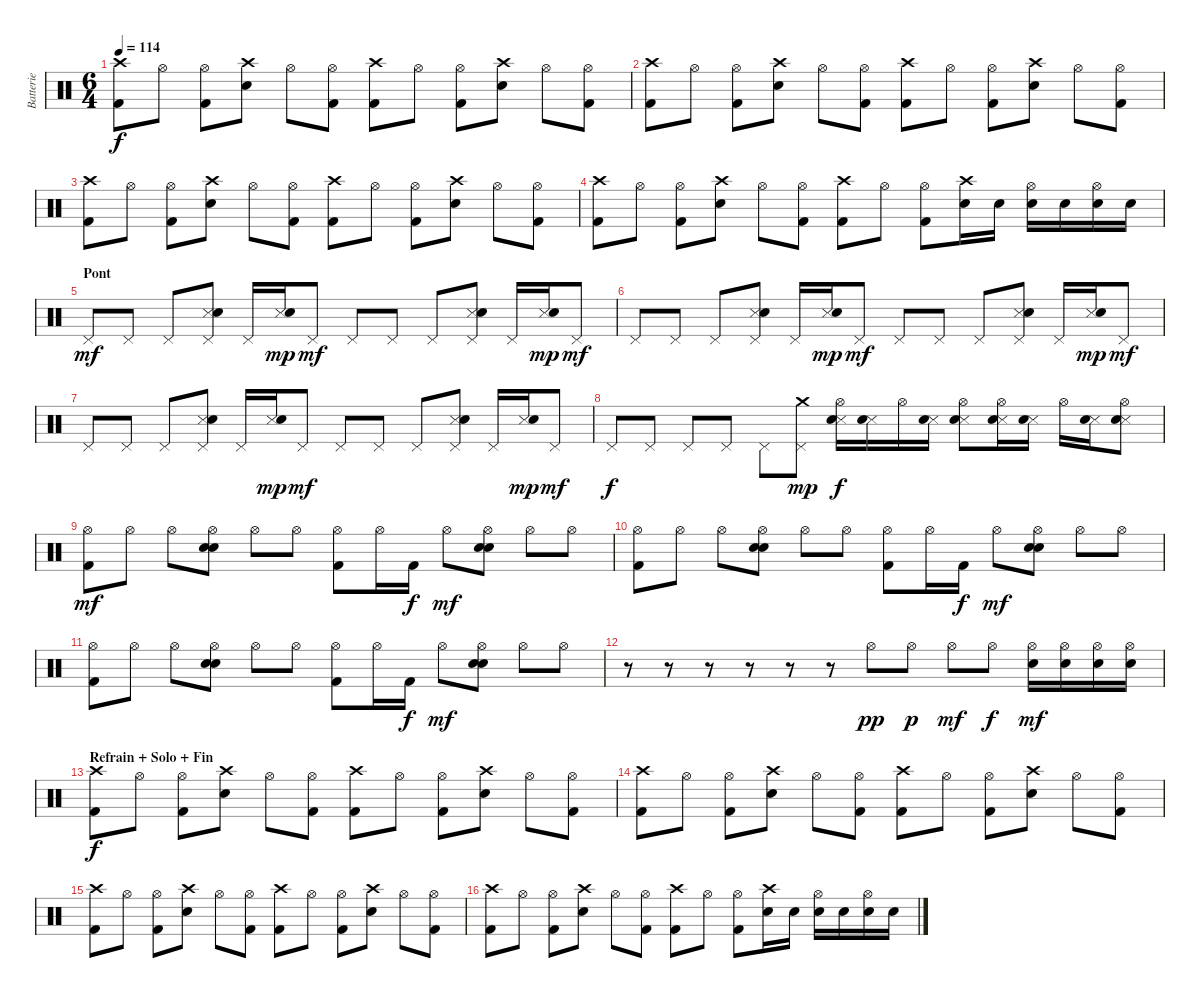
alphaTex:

\track ("Batterie" "Batterie") {instrument percussion}
\staff {score}
\articulation defaults
\ts (6 4)
\tempo 114
\clef neutral
\ks c
("Crash high (hit)" "Kick (hit) 2").8{dy f} "Hi-Hat (open)".8 ("Hi-Hat (open)" "Kick (hit) 2").8 ("Crash high (hit)" "Electric Snare (hit)").8 "Hi-Hat (open)".8 ("Hi-Hat (open)" "Kick (hit) 2").8 ("Crash high (hit)" "Kick (hit) 2").8 "Hi-Hat (open)".8 ("Hi-Hat (open)" "Kick (hit) 2").8 ("Crash high (hit)" "Electric Snare (hit)").8 "Hi-Hat (open)".8 ("Hi-Hat (open)" "Kick (hit) 2").8 |
("Crash high (hit)" "Kick (hit) 2").8 "Hi-Hat (open)".8 ("Hi-Hat (open)" "Kick (hit) 2").8 ("Crash high (hit)" "Electric Snare (hit)").8 "Hi-Hat (open)".8 ("Hi-Hat (open)" "Kick (hit) 2").8 ("Crash high (hit)" "Kick (hit) 2").8 "Hi-Hat (open)".8 ("Hi-Hat (open)" "Kick (hit) 2").8 ("Crash high (hit)" "Electric Snare (hit)").8 "Hi-Hat (open)".8 ("Hi-Hat (open)" "Kick (hit) 2").8 |
("Crash high (hit)" "Kick (hit) 2").8 "Hi-Hat (open)".8 ("Hi-Hat (open)" "Kick (hit) 2").8 ("Crash high (hit)" "Electric Snare (hit)").8 "Hi-Hat (open)".8 ("Hi-Hat (open)" "Kick (hit) 2").8 ("Crash high (hit)" "Kick (hit) 2").8 "Hi-Hat (open)".8 ("Hi-Hat (open)" "Kick (hit) 2").8 ("Crash high (hit)" "Electric Snare (hit)").8 "Hi-Hat (open)".8 ("Hi-Hat (open)" "Kick (hit) 2").8 |
("Crash high (hit)" "Kick (hit) 2").8 "Hi-Hat (open)".8 ("Hi-Hat (open)" "Kick (hit) 2").8 ("Crash high (hit)" "Electric Snare (hit)").8 "Hi-Hat (open)".8 ("Hi-Hat (open)" "Kick (hit) 2").8 ("Crash high (hit)" "Kick (hit) 2").8 "Hi-Hat (open)".8 ("Hi-Hat (open)" "Kick (hit) 2").8 ("Crash high (hit)" "Electric Snare (hit)").16 "Electric Snare (hit)".16 ("Hi-Hat (open)" "Electric Snare (hit)").16 "Electric Snare (hit)".16 ("Hi-Hat (open)" "Electric Snare (hit)").16 "Electric Snare (hit)".16 |
\section ("" "Pont")
"Pedal Hi-Hat (hit)".8{dy mf} "Pedal Hi-Hat (hit)".8 "Pedal Hi-Hat (hit)".8 ("Pedal Hi-Hat (hit)" "Snare (side stick) 3" "Hand Clap (hit)").8 "Pedal Hi-Hat (hit)".16 ("Snare (side stick) 3" "Hand Clap (hit)").16{dy mp} "Pedal Hi-Hat (hit)".8{dy mf} "Pedal Hi-Hat (hit)".8 "Pedal Hi-Hat (hit)".8 "Pedal Hi-Hat (hit)".8 ("Pedal Hi-Hat (hit)" "Snare (side stick) 3" "Hand Clap (hit)").8 "Pedal Hi-Hat (hit)".16 ("Snare (side stick) 3" "Hand Clap (hit)").16{dy mp} "Pedal Hi-Hat (hit)".8{dy mf} |
"Pedal Hi-Hat (hit)".8 "Pedal Hi-Hat (hit)".8 "Pedal Hi-Hat (hit)".8 ("Pedal Hi-Hat (hit)" "Snare (side stick) 3" "Hand Clap (hit)").8 "Pedal Hi-Hat (hit)".16 ("Snare (side stick) 3" "Hand Clap (hit)").16{dy mp} "Pedal Hi-Hat (hit)".8{dy mf} "Pedal Hi-Hat (hit)".8 "Pedal Hi-Hat (hit)".8 "Pedal Hi-Hat (hit)".8 ("Pedal Hi-Hat (hit)" "Snare (side stick) 3" "Hand Clap (hit)").8 "Pedal Hi-Hat (hit)".16 ("Snare (side stick) 3" "Hand Clap (hit)").16{dy mp} "Pedal Hi-Hat (hit)".8{dy mf} |
"Pedal Hi-Hat (hit)".8 "Pedal Hi-Hat (hit)".8 "Pedal Hi-Hat (hit)".8 ("Pedal Hi-Hat (hit)" "Snare (side stick) 3" "Hand Clap (hit)").8 "Pedal Hi-Hat (hit)".16 ("Snare (side stick) 3" "Hand Clap (hit)").16{dy mp} "Pedal Hi-Hat (hit)".8{dy mf} "Pedal Hi-Hat (hit)".8 "Pedal Hi-Hat (hit)".8 "Pedal Hi-Hat (hit)".8 ("Pedal Hi-Hat (hit)" "Snare (side stick) 3" "Hand Clap (hit)").8 "Pedal Hi-Hat (hit)".16 ("Snare (side stick) 3" "Hand Clap (hit)").16{dy mp} "Pedal Hi-Hat (hit)".8{dy mf} |
"Pedal Hi-Hat (hit)".8{dy f} "Pedal Hi-Hat (hit)".8 "Pedal Hi-Hat (hit)".8 "Pedal Hi-Hat (hit)".8 "Pedal Hi-Hat (hit)".8 ("Pedal Hi-Hat (hit)" "Crash medium (hit)").8{dy mp} ("Hi-Hat (open)" "Snare (side stick) 3" "Hand Clap (hit)").16{dy f} ("Snare (side stick) 3" "Hand Clap (hit)").16 "Hi-Hat (open)".16 ("Snare (side stick) 3" "Hand Clap (hit)").16 ("Hi-Hat (open)" "Snare (side stick) 3" "Hand Clap (hit)").8 ("Hi-Hat (open)" "Snare (side stick) 3" "Hand Clap (hit)").16 ("Snare (side stick) 3" "Hand Clap (hit)").16 "Hi-Hat (open)".16 ("Snare (side stick) 3" "Hand Clap (hit)").16 ("Hi-Hat (open)" "Snare (side stick) 3" "Hand Clap (hit)").8 |
("Hi-Hat (open)" "Kick (hit) 2").8{dy mf} "Hi-Hat (open)".8 "Hi-Hat (open)".8 ("Hi-Hat (open)" "Electric Snare (hit)" "Hand Clap (hit)").8 "Hi-Hat (open)".8 "Hi-Hat (open)".8 ("Hi-Hat (open)" "Kick (hit) 2").8 "Hi-Hat (open)".16 "Kick (hit) 2".16{dy f} "Hi-Hat (open)".8{dy mf} ("Hi-Hat (open)" "Electric Snare (hit)" "Hand Clap (hit)").8 "Hi-Hat (open)".8 "Hi-Hat (open)".8 |
("Hi-Hat (open)" "Kick (hit) 2").8 "Hi-Hat (open)".8 "Hi-Hat (open)".8 ("Hi-Hat (open)" "Electric Snare (hit)" "Hand Clap (hit)").8 "Hi-Hat (open)".8 "Hi-Hat (open)".8 ("Hi-Hat (open)" "Kick (hit) 2").8 "Hi-Hat (open)".16 "Kick (hit) 2".16{dy f} "Hi-Hat (open)".8{dy mf} ("Hi-Hat (open)" "Electric Snare (hit)" "Hand Clap (hit)").8 "Hi-Hat (open)".8 "Hi-Hat (open)".8 |
("Hi-Hat (open)" "Kick (hit) 2").8 "Hi-Hat (open)".8 "Hi-Hat (open)".8 ("Hi-Hat (open)" "Electric Snare (hit)" "Hand Clap (hit)").8 "Hi-Hat (open)".8 "Hi-Hat (open)".8 ("Hi-Hat (open)" "Kick (hit) 2").8 "Hi-Hat (open)".16 "Kick (hit) 2".16{dy f} "Hi-Hat (open)".8{dy mf} ("Hi-Hat (open)" "Electric Snare (hit)" "Hand Clap (hit)").8 "Hi-Hat (open)".8 "Hi-Hat (open)".8 |
r.8 r.8 r.8 r.8 r.8 r.8 "Hi-Hat (open)".8{dy pp} "Hi-Hat (open)".8{dy p} "Hi-Hat (open)".8{dy mf} "Hi-Hat (open)".8{dy f} ("Hi-Hat (open)" "Electric Snare (hit)").16{dy mf} ("Hi-Hat (open)" "Electric Snare (hit)").16 ("Hi-Hat (open)" "Electric Snare (hit)").16 ("Hi-Hat (open)" "Electric Snare (hit)").16 |
\section ("" "Refrain + Solo + Fin")
("Crash high (hit)" "Kick (hit) 2").8{dy f} "Hi-Hat (open)".8 ("Hi-Hat (open)" "Kick (hit) 2").8 ("Crash high (hit)" "Electric Snare (hit)").8 "Hi-Hat (open)".8 ("Hi-Hat (open)" "Kick (hit) 2").8 ("Crash high (hit)" "Kick (hit) 2").8 "Hi-Hat (open)".8 ("Hi-Hat (open)" "Kick (hit) 2").8 ("Crash high (hit)" "Electric Snare (hit)").8 "Hi-Hat (open)".8 ("Hi-Hat (open)" "Kick (hit) 2").8 |
("Crash high (hit)" "Kick (hit) 2").8 "Hi-Hat (open)".8 ("Hi-Hat (open)" "Kick (hit) 2").8 ("Crash high (hit)" "Electric Snare (hit)").8 "Hi-Hat (open)".8 ("Hi-Hat (open)" "Kick (hit) 2").8 ("Crash high (hit)" "Kick (hit) 2").8 "Hi-Hat (open)".8 ("Hi-Hat (open)" "Kick (hit) 2").8 ("Crash high (hit)" "Electric Snare (hit)").8 "Hi-Hat (open)".8 ("Hi-Hat (open)" "Kick (hit) 2").8 |
("Crash high (hit)" "Kick (hit) 2").8 "Hi-Hat (open)".8 ("Hi-Hat (open)" "Kick (hit) 2").8 ("Crash high (hit)" "Electric Snare (hit)").8 "Hi-Hat (open)".8 ("Hi-Hat (open)" "Kick (hit) 2").8 ("Crash high (hit)" "Kick (hit) 2").8 "Hi-Hat (open)".8 ("Hi-Hat (open)" "Kick (hit) 2").8 ("Crash high (hit)" "Electric Snare (hit)").8 "Hi-Hat (open)".8 ("Hi-Hat (open)" "Kick (hit) 2").8 |
("Crash high (hit)" "Kick (hit) 2").8 "Hi-Hat (open)".8 ("Hi-Hat (open)" "Kick (hit) 2").8 ("Crash high (hit)" "Electric Snare (hit)").8 "Hi-Hat (open)".8 ("Hi-Hat (open)" "Kick (hit) 2").8 ("Crash high (hit)" "Kick (hit) 2").8 "Hi-Hat (open)".8 ("Hi-Hat (open)" "Kick (hit) 2").8 ("Crash high (hit)" "Electric Snare (hit)").16 "Electric Snare (hit)".16 ("Hi-Hat (open)" "Electric Snare (hit)").16 "Electric Snare (hit)".16 ("Hi-Hat (open)" "Electric Snare (hit)").16 "Electric Snare (hit)".16
